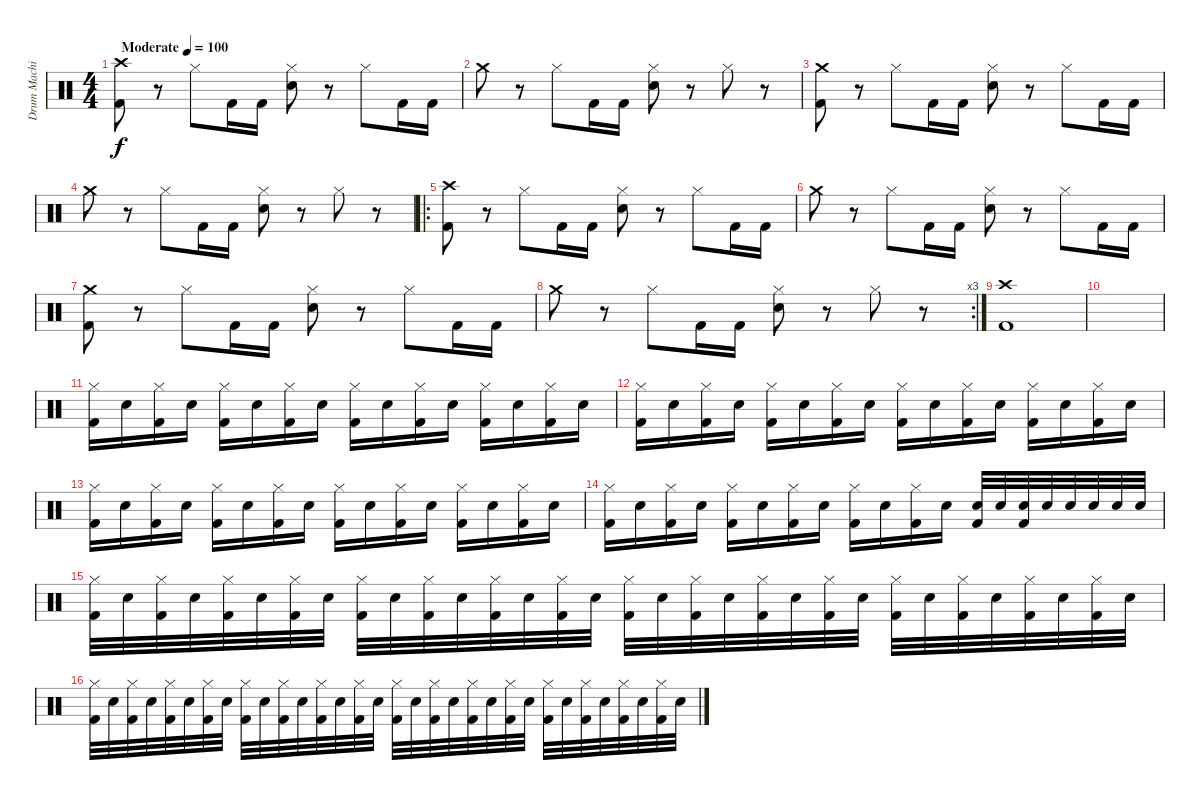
\track ("Drum Machine" "Drum Machi") {instrument percussion}
\staff {score}
\articulation defaults
\ts (4 4)
\tempo (100 "Moderate")
\clef neutral
\ks c
("Crash high (hit)" "Kick (hit) 2").8{dy f} r.8 "Hi-Hat (closed)".8 "Kick (hit) 2".16 "Kick (hit) 2".16 ("Hi-Hat (closed)" "Snare (hit) 2").8 r.8 "Hi-Hat (closed)".8 "Kick (hit) 2".16 "Kick (hit) 2".16 |
"Crash medium (hit)".8 r.8 "Hi-Hat (closed)".8 "Kick (hit) 2".16 "Kick (hit) 2".16 ("Hi-Hat (closed)" "Snare (hit) 2").8 r.8 "Hi-Hat (closed)".8 r.8 |
("Crash medium (hit)" "Kick (hit) 2").8 r.8 "Hi-Hat (closed)".8 "Kick (hit) 2".16 "Kick (hit) 2".16 ("Hi-Hat (closed)" "Snare (hit) 2").8 r.8 "Hi-Hat (closed)".8 "Kick (hit) 2".16 "Kick (hit) 2".16 |
"Crash medium (hit)".8 r.8 "Hi-Hat (closed)".8 "Kick (hit) 2".16 "Kick (hit) 2".16 ("Hi-Hat (closed)" "Snare (hit) 2").8 r.8 "Hi-Hat (closed)".8 r.8 |
\ro
("Crash high (hit)" "Kick (hit) 2").8 r.8 "Hi-Hat (closed)".8 "Kick (hit) 2".16 "Kick (hit) 2".16 ("Hi-Hat (closed)" "Snare (hit) 2").8 r.8 "Hi-Hat (closed)".8 "Kick (hit) 2".16 "Kick (hit) 2".16 |
"Crash medium (hit)".8 r.8 "Hi-Hat (closed)".8 "Kick (hit) 2".16 "Kick (hit) 2".16 ("Hi-Hat (closed)" "Snare (hit) 2").8 r.8 "Hi-Hat (closed)".8 "Kick (hit) 2".16 "Kick (hit) 2".16 |
("Crash medium (hit)" "Kick (hit) 2").8 r.8 "Hi-Hat (closed)".8 "Kick (hit) 2".16 "Kick (hit) 2".16 ("Hi-Hat (closed)" "Snare (hit) 2").8 r.8 "Hi-Hat (closed)".8 "Kick (hit) 2".16 "Kick (hit) 2".16 |
\rc 3 "Crash medium (hit)".8
r.8 "Hi-Hat (closed)".8 "Kick (hit) 2".16 "Kick (hit) 2".16 ("Hi-Hat (closed)" "Snare (hit) 2").8 r.8 "Hi-Hat (closed)".8 r.8 |
("Crash high (hit)" "Kick (hit) 2").1 |
|
("Hi-Hat (closed)" "Kick (hit) 2").16 "Snare (hit) 2".16 ("Hi-Hat (closed)" "Kick (hit) 2").16 "Snare (hit) 2".16 ("Hi-Hat (closed)" "Kick (hit) 2").16 "Snare (hit) 2".16 ("Hi-Hat (closed)" "Kick (hit) 2").16 "Snare (hit) 2".16 ("Hi-Hat (closed)" "Kick (hit) 2").16 "Snare (hit) 2".16 ("Hi-Hat (closed)" "Kick (hit) 2").16 "Snare (hit) 2".16 ("Hi-Hat (closed)" "Kick (hit) 2").16 "Snare (hit) 2".16 ("Hi-Hat (closed)" "Kick (hit) 2").16 "Snare (hit) 2".16 |
("Hi-Hat (closed)" "Kick (hit) 2").16 "Snare (hit) 2".16 ("Hi-Hat (closed)" "Kick (hit) 2").16 "Snare (hit) 2".16 ("Hi-Hat (closed)" "Kick (hit) 2").16 "Snare (hit) 2".16 ("Hi-Hat (closed)" "Kick (hit) 2").16 "Snare (hit) 2".16 ("Hi-Hat (closed)" "Kick (hit) 2").16 "Snare (hit) 2".16 ("Hi-Hat (closed)" "Kick (hit) 2").16 "Snare (hit) 2".16 ("Hi-Hat (closed)" "Kick (hit) 2").16 "Snare (hit) 2".16 ("Hi-Hat (closed)" "Kick (hit) 2").16 "Snare (hit) 2".16 |
("Hi-Hat (closed)" "Kick (hit) 2").16 "Snare (hit) 2".16 ("Hi-Hat (closed)" "Kick (hit) 2").16 "Snare (hit) 2".16 ("Hi-Hat (closed)" "Kick (hit) 2").16 "Snare (hit) 2".16 ("Hi-Hat (closed)" "Kick (hit) 2").16 "Snare (hit) 2".16 ("Hi-Hat (closed)" "Kick (hit) 2").16 "Snare (hit) 2".16 ("Hi-Hat (closed)" "Kick (hit) 2").16 "Snare (hit) 2".16 ("Hi-Hat (closed)" "Kick (hit) 2").16 "Snare (hit) 2".16 ("Hi-Hat (closed)" "Kick (hit) 2").16 "Snare (hit) 2".16 |
("Hi-Hat (closed)" "Kick (hit) 2").16 "Snare (hit) 2".16 ("Hi-Hat (closed)" "Kick (hit) 2").16 "Snare (hit) 2".16 ("Hi-Hat (closed)" "Kick (hit) 2").16 "Snare (hit) 2".16 ("Hi-Hat (closed)" "Kick (hit) 2").16 "Snare (hit) 2".16 ("Hi-Hat (closed)" "Kick (hit) 2").16 "Snare (hit) 2".16 ("Hi-Hat (closed)" "Kick (hit) 2").16 "Snare (hit) 2".16 ("Snare (hit) 2" "Kick (hit) 2").32 "Snare (hit) 2".32 ("Snare (hit) 2" "Kick (hit) 2").32 "Snare (hit) 2".32 "Snare (hit) 2".32 "Snare (hit) 2".32 "Snare (hit) 2".32 "Snare (hit) 2".32 |
("Hi-Hat (closed)" "Kick (hit) 2").32 "Snare (hit) 2".32 ("Hi-Hat (closed)" "Kick (hit) 2").32 "Snare (hit) 2".32 ("Hi-Hat (closed)" "Kick (hit) 2").32 "Snare (hit) 2".32 ("Hi-Hat (closed)" "Kick (hit) 2").32 "Snare (hit) 2".32 ("Hi-Hat (closed)" "Kick (hit) 2").32 "Snare (hit) 2".32 ("Hi-Hat (closed)" "Kick (hit) 2").32 "Snare (hit) 2".32 ("Hi-Hat (closed)" "Kick (hit) 2").32 "Snare (hit) 2".32 ("Hi-Hat (closed)" "Kick (hit) 2").32 "Snare (hit) 2".32 ("Hi-Hat (closed)" "Kick (hit) 2").32 "Snare (hit) 2".32 ("Hi-Hat (closed)" "Kick (hit) 2").32 "Snare (hit) 2".32 ("Hi-Hat (closed)" "Kick (hit) 2").32 "Snare (hit) 2".32 ("Hi-Hat (closed)" "Kick (hit) 2").32 "Snare (hit) 2".32 ("Hi-Hat (closed)" "Kick (hit) 2").32 "Snare (hit) 2".32 ("Hi-Hat (closed)" "Kick (hit) 2").32 "Snare (hit) 2".32 ("Hi-Hat (closed)" "Kick (hit) 2").32 "Snare (hit) 2".32 ("Hi-Hat (closed)" "Kick (hit) 2").32 "Snare (hit) 2".32 |
("Hi-Hat (closed)" "Kick (hit) 2").32 "Snare (hit) 2".32 ("Hi-Hat (closed)" "Kick (hit) 2").32 "Snare (hit) 2".32 ("Hi-Hat (closed)" "Kick (hit) 2").32 "Snare (hit) 2".32 ("Hi-Hat (closed)" "Kick (hit) 2").32 "Snare (hit) 2".32 ("Hi-Hat (closed)" "Kick (hit) 2").32 "Snare (hit) 2".32 ("Hi-Hat (closed)" "Kick (hit) 2").32 "Snare (hit) 2".32 ("Hi-Hat (closed)" "Kick (hit) 2").32 "Snare (hit) 2".32 ("Hi-Hat (closed)" "Kick (hit) 2").32 "Snare (hit) 2".32 ("Hi-Hat (closed)" "Kick (hit) 2").32 "Snare (hit) 2".32 ("Hi-Hat (closed)" "Kick (hit) 2").32 "Snare (hit) 2".32 ("Hi-Hat (closed)" "Kick (hit) 2").32 "Snare (hit) 2".32 ("Hi-Hat (closed)" "Kick (hit) 2").32 "Snare (hit) 2".32 ("Hi-Hat (closed)" "Kick (hit) 2").32 "Snare (hit) 2".32 ("Hi-Hat (closed)" "Kick (hit) 2").32 "Snare (hit) 2".32 ("Hi-Hat (closed)" "Kick (hit) 2").32 "Snare (hit) 2".32 ("Hi-Hat (closed)" "Kick (hit) 2").32 "Snare (hit) 2".32
